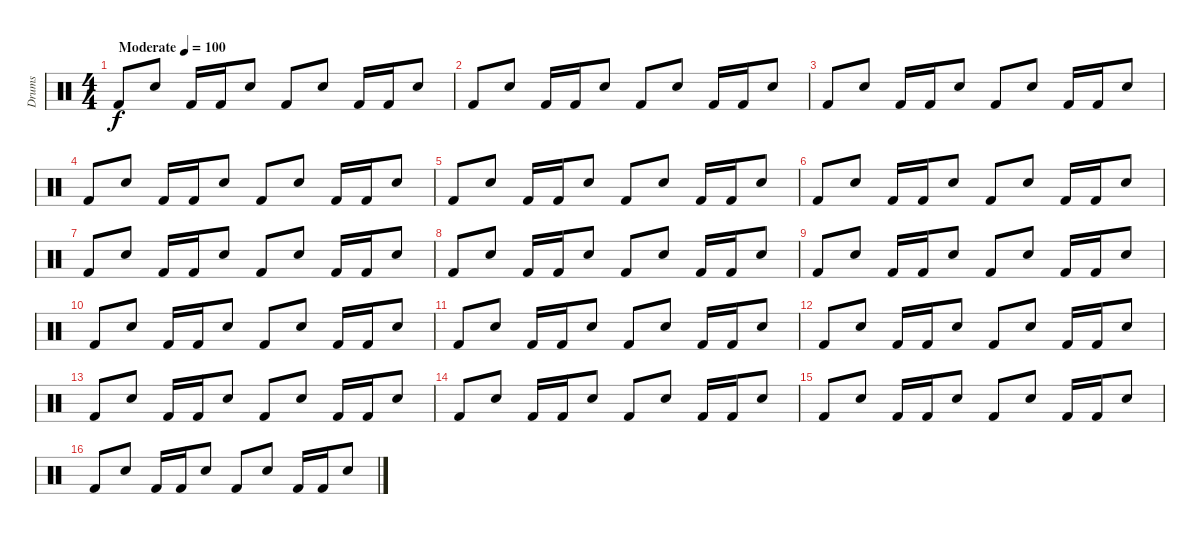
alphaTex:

\track ("Drums" "Drums") {instrument percussion}
\staff {score}
\articulation defaults
\ts (4 4)
\tempo (100 "Moderate")
\clef neutral
\ks c "Kick (hit) 2".8{dy f} "Snare (hit) 2".8 "Kick (hit) 2".16 "Kick (hit) 2".16 "Snare (hit) 2".8 "Kick (hit) 2".8 "Snare (hit) 2".8 "Kick (hit) 2".16 "Kick (hit) 2".16 "Snare (hit) 2".8
|
"Kick (hit) 2".8 "Snare (hit) 2".8 "Kick (hit) 2".16 "Kick (hit) 2".16 "Snare (hit) 2".8 "Kick (hit) 2".8 "Snare (hit) 2".8 "Kick (hit) 2".16 "Kick (hit) 2".16 "Snare (hit) 2".8 |
"Kick (hit) 2".8 "Snare (hit) 2".8 "Kick (hit) 2".16 "Kick (hit) 2".16 "Snare (hit) 2".8 "Kick (hit) 2".8 "Snare (hit) 2".8 "Kick (hit) 2".16 "Kick (hit) 2".16 "Snare (hit) 2".8 |
"Kick (hit) 2".8 "Snare (hit) 2".8 "Kick (hit) 2".16 "Kick (hit) 2".16 "Snare (hit) 2".8 "Kick (hit) 2".8 "Snare (hit) 2".8 "Kick (hit) 2".16 "Kick (hit) 2".16 "Snare (hit) 2".8 |
"Kick (hit) 2".8 "Snare (hit) 2".8 "Kick (hit) 2".16 "Kick (hit) 2".16 "Snare (hit) 2".8 "Kick (hit) 2".8 "Snare (hit) 2".8 "Kick (hit) 2".16 "Kick (hit) 2".16 "Snare (hit) 2".8 |
"Kick (hit) 2".8 "Snare (hit) 2".8 "Kick (hit) 2".16 "Kick (hit) 2".16 "Snare (hit) 2".8 "Kick (hit) 2".8 "Snare (hit) 2".8 "Kick (hit) 2".16 "Kick (hit) 2".16 "Snare (hit) 2".8 |
"Kick (hit) 2".8 "Snare (hit) 2".8 "Kick (hit) 2".16 "Kick (hit) 2".16 "Snare (hit) 2".8 "Kick (hit) 2".8 "Snare (hit) 2".8 "Kick (hit) 2".16 "Kick (hit) 2".16 "Snare (hit) 2".8 |
"Kick (hit) 2".8 "Snare (hit) 2".8 "Kick (hit) 2".16 "Kick (hit) 2".16 "Snare (hit) 2".8 "Kick (hit) 2".8 "Snare (hit) 2".8 "Kick (hit) 2".16 "Kick (hit) 2".16 "Snare (hit) 2".8 |
"Kick (hit) 2".8 "Snare (hit) 2".8 "Kick (hit) 2".16 "Kick (hit) 2".16 "Snare (hit) 2".8 "Kick (hit) 2".8 "Snare (hit) 2".8 "Kick (hit) 2".16 "Kick (hit) 2".16 "Snare (hit) 2".8 |
"Kick (hit) 2".8 "Snare (hit) 2".8 "Kick (hit) 2".16 "Kick (hit) 2".16 "Snare (hit) 2".8 "Kick (hit) 2".8 "Snare (hit) 2".8 "Kick (hit) 2".16 "Kick (hit) 2".16 "Snare (hit) 2".8 |
"Kick (hit) 2".8 "Snare (hit) 2".8 "Kick (hit) 2".16 "Kick (hit) 2".16 "Snare (hit) 2".8 "Kick (hit) 2".8 "Snare (hit) 2".8 "Kick (hit) 2".16 "Kick (hit) 2".16 "Snare (hit) 2".8 |
"Kick (hit) 2".8 "Snare (hit) 2".8 "Kick (hit) 2".16 "Kick (hit) 2".16 "Snare (hit) 2".8 "Kick (hit) 2".8 "Snare (hit) 2".8 "Kick (hit) 2".16 "Kick (hit) 2".16 "Snare (hit) 2".8 |
"Kick (hit) 2".8 "Snare (hit) 2".8 "Kick (hit) 2".16 "Kick (hit) 2".16 "Snare (hit) 2".8 "Kick (hit) 2".8 "Snare (hit) 2".8 "Kick (hit) 2".16 "Kick (hit) 2".16 "Snare (hit) 2".8 |
"Kick (hit) 2".8 "Snare (hit) 2".8 "Kick (hit) 2".16 "Kick (hit) 2".16 "Snare (hit) 2".8 "Kick (hit) 2".8 "Snare (hit) 2".8 "Kick (hit) 2".16 "Kick (hit) 2".16 "Snare (hit) 2".8 |
"Kick (hit) 2".8 "Snare (hit) 2".8 "Kick (hit) 2".16 "Kick (hit) 2".16 "Snare (hit) 2".8 "Kick (hit) 2".8 "Snare (hit) 2".8 "Kick (hit) 2".16 "Kick (hit) 2".16 "Snare (hit) 2".8 |
"Kick (hit) 2".8 "Snare (hit) 2".8 "Kick (hit) 2".16 "Kick (hit) 2".16 "Snare (hit) 2".8 "Kick (hit) 2".8 "Snare (hit) 2".8 "Kick (hit) 2".16 "Kick (hit) 2".16 "Snare (hit) 2".8
